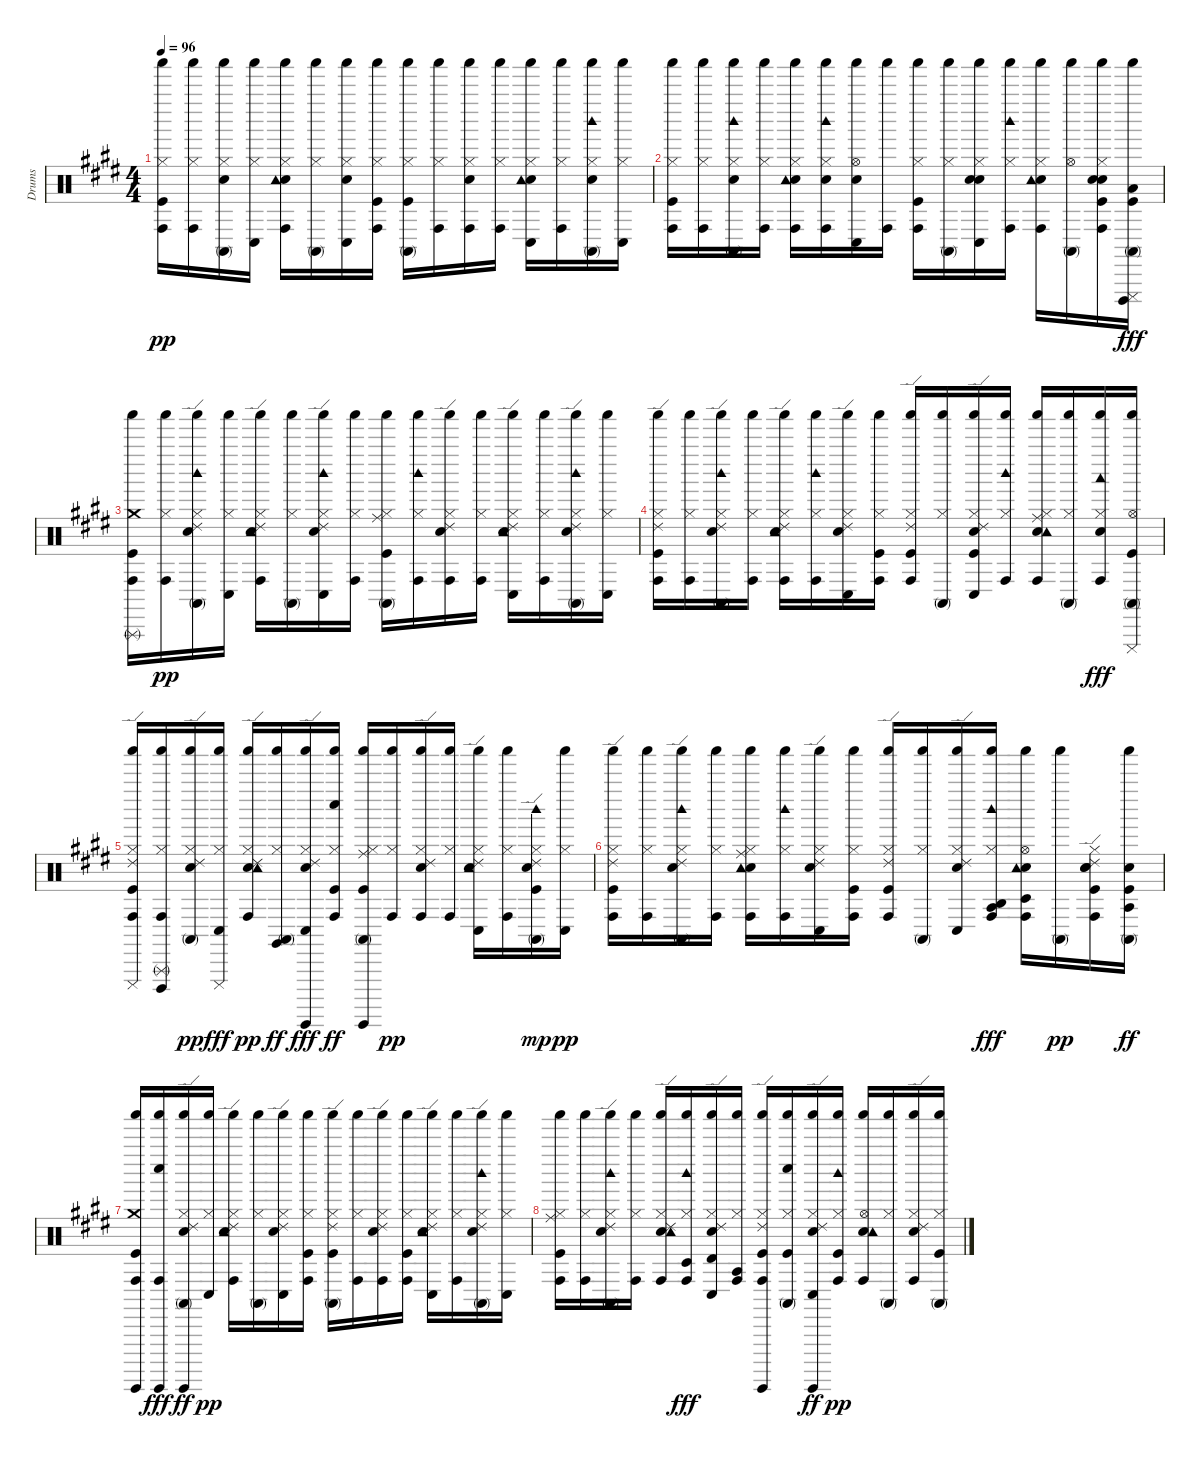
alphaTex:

\track ("Drums" "Drums") {instrument percussion}
\staff {score}
\articulation defaults
\ts (4 4)
\tempo 96
\clef neutral
\ks e
("Kick (hit)" "Hi-Hat (closed)" "Conga high (hit)" "Shaker (hit)").16{dy pp} ("Hi-Hat (closed)" "Conga high (hit)" "Shaker (hit)").16 ("Hand Clap (hit)" "Hi-Hat (closed)" "Conga high (mute)" "Shaker (hit)").16 ("Hi-Hat (closed)" "Conga low (hit)" "Shaker (hit)").16 ("Electric Snare (hit)" "Hi-Hat (closed)" "Tambourine (hit)" "Conga high (hit)" "Shaker (hit)").16 ("Hi-Hat (closed)" "Conga high (mute)" "Shaker (hit)").16 ("Hand Clap (hit)" "Hi-Hat (closed)" "Conga low (hit)" "Shaker (hit)").16 ("Kick (hit)" "Hi-Hat (closed)" "Conga high (hit)" "Shaker (hit)").16 ("Kick (hit)" "Hi-Hat (closed)" "Conga high (mute)" "Shaker (hit)").16 ("Hi-Hat (closed)" "Conga high (hit)" "Shaker (hit)").16 ("Hand Clap (hit)" "Hi-Hat (closed)" "Conga high (hit)" "Shaker (hit)").16 ("Hi-Hat (closed)" "Conga high (hit)" "Shaker (hit)").16 ("Electric Snare (hit)" "Hi-Hat (closed)" "Tambourine (hit)" "Conga low (hit)" "Shaker (hit)").16 ("Hi-Hat (closed)" "Conga high (hit)" "Shaker (hit)").16 ("Hand Clap (hit)" "Hi-Hat (closed)" "Conga high (mute)" "Woodblock high (hit)" "Shaker (hit)").16 ("Hi-Hat (closed)" "Conga low (hit)" "Shaker (hit)").16 |
("Kick (hit)" "Hi-Hat (closed)" "Conga high (hit)" "Shaker (hit)").16 ("Hi-Hat (closed)" "Conga high (hit)" "Shaker (hit)").16 ("Hand Clap (hit)" "Hi-Hat (closed)" "Conga high (mute)" "Woodblock high (hit)" "Shaker (hit)").16 ("Hi-Hat (closed)" "Conga high (hit)" "Shaker (hit)").16 ("Electric Snare (hit)" "Hi-Hat (closed)" "Tambourine (hit)" "Conga high (hit)" "Shaker (hit)").16 ("Electric Snare (hit)" "Hi-Hat (closed)" "Conga high (hit)" "Woodblock high (hit)" "Shaker (hit)").16 ("Hand Clap (hit)" "Hi-Hat (open)" "Conga low (hit)" "Shaker (hit)").16 ("Conga high (hit)" "Shaker (hit)").16 ("Kick (hit)" "Hi-Hat (closed)" "Conga high (hit)" "Shaker (hit)").16 ("Hi-Hat (closed)" "Conga high (mute)" "Shaker (hit)").16 ("Hand Clap (hit)" "Electric Snare (hit)" "Hi-Hat (closed)" "Conga low (hit)" "Shaker (hit)").16 ("Hi-Hat (closed)" "Conga high (hit)" "Woodblock high (hit)" "Shaker (hit)").16 ("Electric Snare (hit)" "Hi-Hat (closed)" "Tambourine (hit)" "Conga high (hit)" "Shaker (hit)").16 ("Hi-Hat (open)" "Conga high (mute)" "Shaker (hit)").16 ("Kick (hit)" "Hand Clap (hit)" "Electric Snare (hit)" "Hi-Hat (closed)" "Conga high (hit)" "Shaker (hit)").16 ("Kick (hit)" "Low Tom (hit)" "Conga high (mute)" "Shaker (hit)" "Cuica (mute)" "Cuica (open)").16{dy fff} |
("Kick (hit)" "Crash medium (hit)" "Conga high (hit)" "Shaker (hit)" "Triangle (rnute)").16 ("Hi-Hat (closed)" "Conga high (hit)" "Shaker (hit)").16{dy pp} ("Hand Clap (hit)" "Hi-Hat (closed)" "Ride (edge) 2" "Conga high (mute)" "Woodblock high (hit)" "Shaker (hit)").16 ("Hi-Hat (closed)" "Conga low (hit)" "Shaker (hit)").16 ("Electric Snare (hit)" "Hi-Hat (closed)" "Tambourine (hit)" "Ride (edge) 2" "Conga high (hit)" "Shaker (hit)").16 ("Hi-Hat (closed)" "Conga high (mute)" "Shaker (hit)").16 ("Hand Clap (hit)" "Hi-Hat (closed)" "Ride (edge) 2" "Conga low (hit)" "Woodblock high (hit)" "Shaker (hit)").16 ("Hi-Hat (closed)" "Conga high (hit)" "Shaker (hit)").16 ("Kick (hit)" "Hi-Hat (closed)" "Ride (middle)" "Conga high (mute)" "Shaker (hit)").16 ("Hi-Hat (closed)" "Conga high (hit)" "Woodblock high (hit)" "Shaker (hit)").16 ("Hand Clap (hit)" "Hi-Hat (closed)" "Ride (edge) 2" "Conga high (hit)" "Shaker (hit)").16 ("Hi-Hat (closed)" "Conga high (hit)" "Shaker (hit)").16 ("Electric Snare (hit)" "Hi-Hat (closed)" "Tambourine (hit)" "Ride (edge) 2" "Conga low (hit)" "Shaker (hit)").16 ("Hi-Hat (closed)" "Conga high (hit)" "Shaker (hit)").16 ("Hand Clap (hit)" "Hi-Hat (closed)" "Ride (edge) 2" "Conga high (mute)" "Woodblock high (hit)" "Shaker (hit)").16 ("Hi-Hat (closed)" "Conga low (hit)" "Shaker (hit)").16 |
("Kick (hit)" "Hi-Hat (closed)" "Ride (edge) 2" "Conga high (hit)" "Shaker (hit)").16 ("Hi-Hat (closed)" "Conga high (hit)" "Shaker (hit)").16 ("Hand Clap (hit)" "Hi-Hat (closed)" "Ride (edge) 2" "Conga high (mute)" "Woodblock high (hit)" "Shaker (hit)").16 ("Hi-Hat (closed)" "Conga high (hit)" "Shaker (hit)").16 ("Electric Snare (hit)" "Hi-Hat (closed)" "Tambourine (hit)" "Ride (edge) 2" "Conga high (hit)" "Shaker (hit)").16 ("Hi-Hat (closed)" "Conga high (hit)" "Woodblock high (hit)" "Shaker (hit)").16 ("Hand Clap (hit)" "Hi-Hat (closed)" "Ride (edge) 2" "Conga low (hit)" "Shaker (hit)").16 ("Kick (hit)" "Hi-Hat (closed)" "Conga high (hit)" "Shaker (hit)").16 ("Kick (hit)" "Hi-Hat (closed)" "Ride (edge) 2" "Conga high (hit)" "Shaker (hit)").16 ("Hi-Hat (closed)" "Conga high (mute)" "Shaker (hit)").16 ("Kick (hit)" "Hand Clap (hit)" "Hi-Hat (closed)" "Ride (edge) 2" "Conga low (hit)" "Shaker (hit)").16 ("Hi-Hat (closed)" "Conga high (hit)" "Woodblock high (hit)" "Shaker (hit)").16 ("Electric Snare (hit)" "Hi-Hat (closed)" "Ride (middle)" "Tambourine (hit)" "Conga high (hit)" "Shaker (hit)").16 ("Hi-Hat (closed)" "Conga high (mute)" "Shaker (hit)").16 ("Hand Clap (hit)" "Hi-Hat (closed)" "Conga high (hit)" "Shaker (hit)" "Woodblock low (hit)").16{dy fff} ("Kick (hit)" "Hi-Hat (open)" "Conga high (mute)" "Shaker (hit)" "Cuica (mute)").16 |
("Kick (hit)" "Hi-Hat (closed)" "Ride (edge) 2" "Conga high (hit)" "Shaker (hit)" "Cuica (mute)").16 ("Hi-Hat (closed)" "Conga high (hit)" "Shaker (hit)" "Cuica (open)" "Triangle (rnute)").16 ("Hand Clap (hit)" "Hi-Hat (closed)" "Ride (edge) 2" "Conga high (mute)" "Shaker (hit)").16{dy pp} ("Hi-Hat (closed)" "Conga low (hit)" "Shaker (hit)" "Cuica (mute)").16{dy fff} ("Electric Snare (hit)" "Hi-Hat (closed)" "Tambourine (hit)" "Ride (edge) 2" "Conga high (hit)" "Shaker (hit)").16{dy pp} ("Hi-Hat (closed)" "Conga high (mute)" "Shaker (hit)" "Claves (hit)").16{dy ff} ("Hand Clap (hit)" "Hi-Hat (closed)" "Ride (edge) 2" "Conga low (hit)" "Shaker (hit)" "Guiro (hit)").16{dy fff} ("Kick (hit)" "Hi-Hat (closed)" "Conga high (hit)" "Shaker (hit)" "Whistle low (hit)").16{dy ff} ("Kick (hit)" "Hi-Hat (closed)" "Ride (middle)" "Conga high (mute)" "Shaker (hit)" "Guiro (hit)").16 ("Hi-Hat (closed)" "Conga high (hit)" "Shaker (hit)").16{dy pp} ("Hand Clap (hit)" "Hi-Hat (closed)" "Ride (edge) 2" "Conga high (hit)" "Shaker (hit)").16 ("Hi-Hat (closed)" "Conga high (hit)" "Shaker (hit)").16 ("Electric Snare (hit)" "Hi-Hat (closed)" "Tambourine (hit)" "Ride (edge) 2" "Conga low (hit)" "Shaker (hit)").16 ("Hi-Hat (closed)" "Conga high (hit)" "Shaker (hit)").16 ("Kick (hit)" "Hand Clap (hit)" "Hi-Hat (closed)" "Ride (edge) 2" "Conga high (mute)" "Woodblock high (hit)").16{dy mp} ("Hi-Hat (closed)" "Conga low (hit)" "Shaker (hit)").16{dy pp} |
("Kick (hit)" "Hi-Hat (closed)" "Ride (edge) 2" "Conga high (hit)" "Shaker (hit)").16 ("Hi-Hat (closed)" "Conga high (hit)" "Shaker (hit)").16 ("Hand Clap (hit)" "Hi-Hat (closed)" "Ride (edge) 2" "Conga high (mute)" "Woodblock high (hit)" "Shaker (hit)").16 ("Hi-Hat (closed)" "Conga high (hit)" "Shaker (hit)").16 ("Electric Snare (hit)" "Hi-Hat (closed)" "Ride (middle)" "Tambourine (hit)" "Conga high (hit)" "Shaker (hit)").16 ("Hi-Hat (closed)" "Conga high (hit)" "Woodblock high (hit)" "Shaker (hit)").16 ("Hand Clap (hit)" "Hi-Hat (closed)" "Ride (edge) 2" "Conga low (hit)" "Shaker (hit)").16 ("Kick (hit)" "Hi-Hat (closed)" "Conga high (hit)" "Shaker (hit)").16 ("Kick (hit)" "Hi-Hat (closed)" "Ride (edge) 2" "Conga high (hit)" "Shaker (hit)").16 ("Hi-Hat (closed)" "Conga high (mute)" "Shaker (hit)").16 ("Hand Clap (hit)" "Hi-Hat (closed)" "Ride (edge) 2" "Conga low (hit)" "Shaker (hit)").16 ("Hi-Hat (closed)" "Conga high (hit)" "Woodblock high (hit)" "Shaker (hit)" "Agogo high (hit)" "Agogo tow (hit)").16{dy fff} ("Electric Snare (hit)" "Hi-Hat (open)" "Tambourine (hit)" "Conga high (hit)" "Shaker (hit)" "Timbale low (hit)").16 ("Conga high (mute)" "Shaker (hit)").16{dy pp} ("Kick (hit)" "Hand Clap (hit)" "Electric Snare (hit)" "Hi-Hat (closed)" "Ride (edge) 2" "Conga high (hit)").16 ("Kick (hit)" "Electric Snare (hit)" "Conga high (mute)" "Shaker (hit)" "Agogo tow (hit)").16{dy ff} |
("Kick (hit)" "Crash medium (hit)" "Conga high (hit)" "Shaker (hit)" "Guiro (hit)").16 ("Conga high (hit)" "Shaker (hit)" "Whistle low (hit)" "Guiro (hit)").16{dy fff} ("Hand Clap (hit)" "Hi-Hat (closed)" "Ride (edge) 2" "Conga high (mute)" "Shaker (hit)" "Guiro (hit)").16{dy ff} ("Hi-Hat (closed)" "Conga low (hit)" "Shaker (hit)").16{dy pp} ("Electric Snare (hit)" "Hi-Hat (closed)" "Tambourine (hit)" "Ride (edge) 2" "Conga high (hit)" "Shaker (hit)").16 ("Hi-Hat (closed)" "Conga high (mute)" "Shaker (hit)").16 ("Hand Clap (hit)" "Hi-Hat (closed)" "Ride (edge) 2" "Conga low (hit)" "Shaker (hit)").16 ("Kick (hit)" "Hi-Hat (closed)" "Conga high (hit)" "Shaker (hit)").16 ("Kick (hit)" "Hi-Hat (closed)" "Ride (edge) 2" "Conga high (mute)" "Shaker (hit)").16 ("Hi-Hat (closed)" "Conga high (hit)" "Shaker (hit)").16 ("Hand Clap (hit)" "Hi-Hat (closed)" "Ride (edge) 2" "Conga high (hit)" "Shaker (hit)").16 ("Kick (hit)" "Hi-Hat (closed)" "Conga high (hit)" "Shaker (hit)").16 ("Electric Snare (hit)" "Hi-Hat (closed)" "Tambourine (hit)" "Ride (edge) 2" "Conga low (hit)" "Shaker (hit)").16 ("Hi-Hat (closed)" "Conga high (hit)" "Shaker (hit)").16 ("Hand Clap (hit)" "Hi-Hat (closed)" "Ride (edge) 2" "Conga high (mute)" "Woodblock high (hit)" "Shaker (hit)").16 ("Hi-Hat (closed)" "Conga low (hit)" "Shaker (hit)").16 |
("Kick (hit)" "Hi-Hat (closed)" "Ride (middle)" "Conga high (hit)" "Shaker (hit)").16 ("Hi-Hat (closed)" "Conga high (hit)" "Shaker (hit)").16 ("Hand Clap (hit)" "Hi-Hat (closed)" "Ride (edge) 2" "Conga high (mute)" "Woodblock high (hit)" "Shaker (hit)").16 ("Hi-Hat (closed)" "Conga high (hit)" "Shaker (hit)").16 ("Electric Snare (hit)" "Hi-Hat (closed)" "Tambourine (hit)" "Ride (edge) 2" "Conga high (hit)" "Shaker (hit)").16 ("Hi-Hat (closed)" "Conga high (hit)" "Woodblock high (hit)" "Shaker (hit)" "Timbale low (hit)").16{dy fff} ("Hand Clap (hit)" "Hi-Hat (closed)" "Ride (edge) 2" "Conga low (hit)" "Shaker (hit)" "Timbale high (hit)").16 ("Hi-Hat (closed)" "Conga high (hit)" "Shaker (hit)" "Agogo tow (hit)").16 ("Kick (hit)" "Hi-Hat (closed)" "Ride (edge) 2" "Conga high (hit)" "Shaker (hit)" "Guiro (hit)").16 ("Kick (hit)" "Hi-Hat (closed)" "Conga high (mute)" "Shaker (hit)" "Whistle low (hit)").16 ("Hand Clap (hit)" "Hi-Hat (closed)" "Ride (edge) 2" "Conga low (hit)" "Shaker (hit)" "Guiro (hit)").16{dy ff} ("Kick (hit)" "Hi-Hat (closed)" "Conga high (hit)" "Woodblock high (hit)" "Shaker (hit)").16{dy pp} ("Electric Snare (hit)" "Hi-Hat (open)" "Tambourine (hit)" "Conga high (hit)" "Shaker (hit)").16 ("Hi-Hat (closed)" "Conga high (mute)" "Shaker (hit)").16 ("Hand Clap (hit)" "Hi-Hat (closed)" "Ride (edge) 2" "Conga high (hit)" "Shaker (hit)").16 ("Kick (hit)" "Hi-Hat (closed)" "Conga high (mute)" "Shaker (hit)").16
